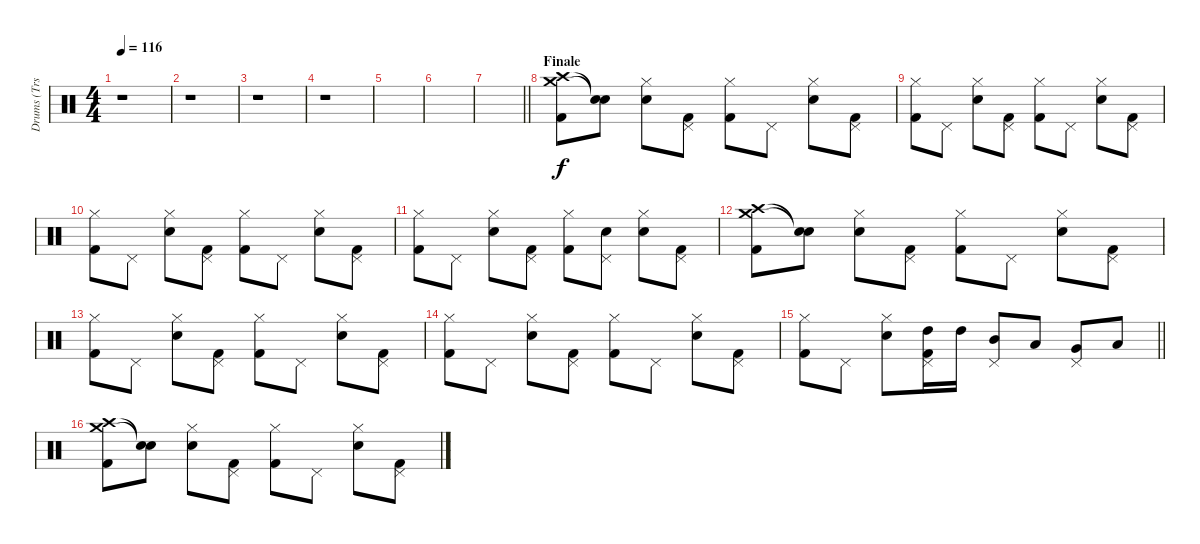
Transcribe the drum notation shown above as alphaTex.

\track ("Drums (Trs. 7-8A, 10A/7-8B, 10B, 12-13B)" "Drums (Trs") {mute instrument percussion}
\staff {score}
\articulation defaults
\ts (4 4)
\tempo 116
\clef neutral
\ks c
r.1{dy f} |
r.1 |
r.1 |
r.1 |
|
|
\barLineRight lightlight
|
\section ("" "Finale")
("Crash medium (hit)" "Crash high (hit)" "Kick (hit) 2").8 ("Snare (hit)"{t} "Snare (hit)"{t}).8 ("Electric Snare (hit)" "Hi-Hat (closed)").8 ("Pedal Hi-Hat (hit)" "Kick (hit) 2").8 ("Hi-Hat (closed)" "Kick (hit) 2").8 "Pedal Hi-Hat (hit)".8 ("Electric Snare (hit)" "Hi-Hat (closed)").8 ("Pedal Hi-Hat (hit)" "Kick (hit) 2").8 |
("Hi-Hat (closed)" "Kick (hit) 2").8 "Pedal Hi-Hat (hit)".8 ("Electric Snare (hit)" "Hi-Hat (closed)").8 ("Pedal Hi-Hat (hit)" "Kick (hit) 2").8 ("Hi-Hat (closed)" "Kick (hit) 2").8 "Pedal Hi-Hat (hit)".8 ("Electric Snare (hit)" "Hi-Hat (closed)").8 ("Pedal Hi-Hat (hit)" "Kick (hit) 2").8 |
("Hi-Hat (closed)" "Kick (hit) 2").8 "Pedal Hi-Hat (hit)".8 ("Electric Snare (hit)" "Hi-Hat (closed)").8 ("Pedal Hi-Hat (hit)" "Kick (hit) 2").8 ("Hi-Hat (closed)" "Kick (hit) 2").8 "Pedal Hi-Hat (hit)".8 ("Electric Snare (hit)" "Hi-Hat (closed)").8 ("Pedal Hi-Hat (hit)" "Kick (hit) 2").8 |
("Hi-Hat (closed)" "Kick (hit) 2").8 "Pedal Hi-Hat (hit)".8 ("Electric Snare (hit)" "Hi-Hat (closed)").8 ("Pedal Hi-Hat (hit)" "Kick (hit) 2").8 ("Hi-Hat (closed)" "Kick (hit) 2").8 ("Electric Snare (hit)" "Pedal Hi-Hat (hit)").8 ("Electric Snare (hit)" "Hi-Hat (closed)").8 ("Pedal Hi-Hat (hit)" "Kick (hit) 2").8 |
("Crash medium (hit)" "Crash high (hit)" "Kick (hit) 2").8 ("Snare (hit)"{t} "Snare (hit)"{t}).8 ("Electric Snare (hit)" "Hi-Hat (closed)").8 ("Pedal Hi-Hat (hit)" "Kick (hit) 2").8 ("Hi-Hat (closed)" "Kick (hit) 2").8 "Pedal Hi-Hat (hit)".8 ("Electric Snare (hit)" "Hi-Hat (closed)").8 ("Pedal Hi-Hat (hit)" "Kick (hit) 2").8 |
("Hi-Hat (closed)" "Kick (hit) 2").8 "Pedal Hi-Hat (hit)".8 ("Electric Snare (hit)" "Hi-Hat (closed)").8 ("Pedal Hi-Hat (hit)" "Kick (hit) 2").8 ("Hi-Hat (closed)" "Kick (hit) 2").8 "Pedal Hi-Hat (hit)".8 ("Electric Snare (hit)" "Hi-Hat (closed)").8 ("Pedal Hi-Hat (hit)" "Kick (hit) 2").8 |
("Hi-Hat (closed)" "Kick (hit) 2").8 "Pedal Hi-Hat (hit)".8 ("Electric Snare (hit)" "Hi-Hat (closed)").8 ("Pedal Hi-Hat (hit)" "Kick (hit) 2").8 ("Hi-Hat (closed)" "Kick (hit) 2").8 "Pedal Hi-Hat (hit)".8 ("Electric Snare (hit)" "Hi-Hat (closed)").8 ("Pedal Hi-Hat (hit)" "Kick (hit) 2").8 |
\barLineRight lightlight
("Hi-Hat (closed)" "Kick (hit) 2").8 "Pedal Hi-Hat (hit)".8 ("Electric Snare (hit)" "Hi-Hat (closed)").8 ("Pedal Hi-Hat (hit)" "High Tom (hit)" "Kick (hit) 2").16 "High Tom (hit)".16 ("Pedal Hi-Hat (hit)" "Mid Tom (hit)").8 "Low Tom (hit)".8 ("Pedal Hi-Hat (hit)" "Very Low Tom (hit)").8 "Low Floor Tom (hit)".8 |
("Crash medium (hit)" "Crash high (hit)" "Kick (hit) 2").8 ("Snare (hit)"{t} "Snare (hit)"{t}).8 ("Electric Snare (hit)" "Hi-Hat (closed)").8 ("Pedal Hi-Hat (hit)" "Kick (hit) 2").8 ("Hi-Hat (closed)" "Kick (hit) 2").8 "Pedal Hi-Hat (hit)".8 ("Electric Snare (hit)" "Hi-Hat (closed)").8 ("Pedal Hi-Hat (hit)" "Kick (hit) 2").8
